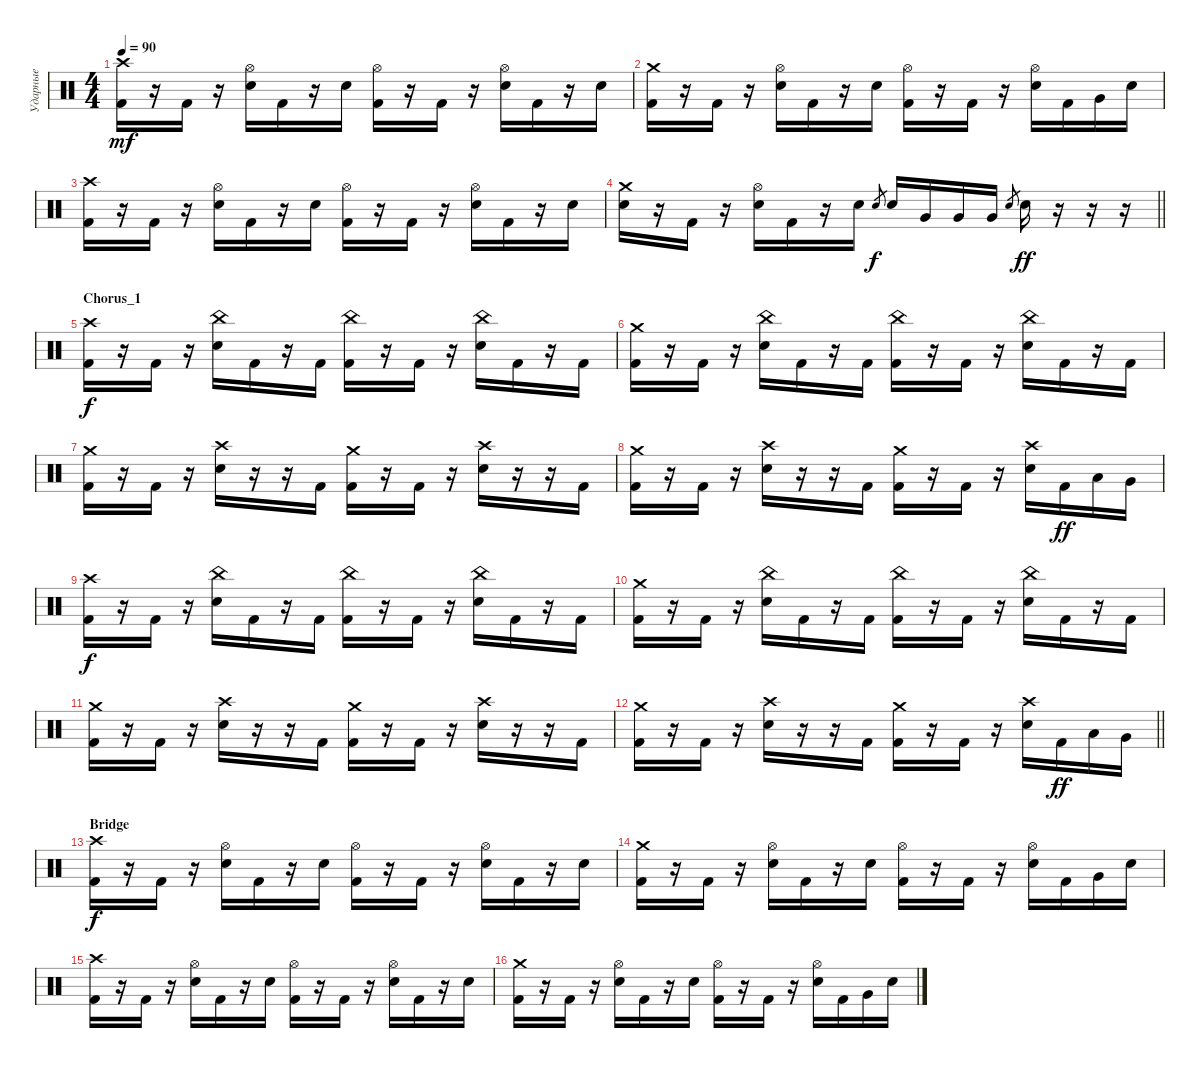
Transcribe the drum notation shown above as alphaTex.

\track ("Ударные" "Ударные") {instrument percussion}
\staff {score}
\articulation defaults
\ts (4 4)
\tempo 90
\clef neutral
\ks c
("Crash high (hit)" "Kick (hit) 2").16{dy mf} r.16 "Kick (hit) 2".16 r.16 ("Hi-Hat (open)" "Electric Snare (hit)").16 "Kick (hit) 2".16 r.16 "Electric Snare (hit)".16 ("Hi-Hat (open)" "Kick (hit) 2").16 r.16 "Kick (hit) 2".16 r.16 ("Hi-Hat (open)" "Electric Snare (hit)").16 "Kick (hit) 2".16 r.16 "Electric Snare (hit)".16 |
("Crash medium (hit)" "Kick (hit) 2").16 r.16 "Kick (hit) 2".16 r.16 ("Hi-Hat (open)" "Electric Snare (hit)").16 "Kick (hit) 2".16 r.16 "Electric Snare (hit)".16 ("Hi-Hat (open)" "Kick (hit) 2").16 r.16 "Kick (hit) 2".16 r.16 ("Hi-Hat (open)" "Electric Snare (hit)").16 "Kick (hit) 2".16 "Very Low Tom (hit)".16 "Electric Snare (hit)".16 |
("Crash high (hit)" "Kick (hit) 2").16 r.16 "Kick (hit) 2".16 r.16 ("Hi-Hat (open)" "Electric Snare (hit)").16 "Kick (hit) 2".16 r.16 "Electric Snare (hit)".16 ("Hi-Hat (open)" "Kick (hit) 2").16 r.16 "Kick (hit) 2".16 r.16 ("Hi-Hat (open)" "Electric Snare (hit)").16 "Kick (hit) 2".16 r.16 "Electric Snare (hit)".16 |
\barLineRight lightlight
("Crash medium (hit)" "Electric Snare (hit)").16 r.16 "Kick (hit) 2".16 r.16 ("Hi-Hat (open)" "Electric Snare (hit)").16 "Kick (hit) 2".16 r.16 "Electric Snare (hit)".16 "Electric Snare (hit)".8{gr dy f} "Electric Snare (hit)".16 "Very Low Tom (hit)".16 "Very Low Tom (hit)".16 "Very Low Tom (hit)".16 "Electric Snare (hit)".8{gr} "Electric Snare (hit)".16{dy ff} r.16 r.16 r.16 |
\section ("" "Chorus_1")
("Crash high (hit)" "Kick (hit) 2").16{dy f} r.16 "Kick (hit) 2".16 r.16 ("China (hit)" "Electric Snare (hit)").16 "Kick (hit) 2".16 r.16 "Kick (hit) 2".16 ("China (hit)" "Kick (hit) 2").16 r.16 "Kick (hit) 2".16 r.16 ("China (hit)" "Electric Snare (hit)").16 "Kick (hit) 2".16 r.16 "Kick (hit) 2".16 |
("Crash medium (hit)" "Kick (hit) 2").16 r.16 "Kick (hit) 2".16 r.16 ("China (hit)" "Electric Snare (hit)").16 "Kick (hit) 2".16 r.16 "Kick (hit) 2".16 ("China (hit)" "Kick (hit) 2").16 r.16 "Kick (hit) 2".16 r.16 ("China (hit)" "Electric Snare (hit)").16 "Kick (hit) 2".16 r.16 "Kick (hit) 2".16 |
("Crash medium (hit)" "Kick (hit) 2").16 r.16 "Kick (hit) 2".16 r.16 ("Crash high (hit)" "Electric Snare (hit)").16 r.16 r.16 "Kick (hit) 2".16 ("Crash medium (hit)" "Kick (hit) 2").16 r.16 "Kick (hit) 2".16 r.16 ("Crash high (hit)" "Electric Snare (hit)").16 r.16 r.16 "Kick (hit) 2".16 |
("Crash medium (hit)" "Kick (hit) 2").16 r.16 "Kick (hit) 2".16 r.16 ("Crash high (hit)" "Electric Snare (hit)").16 r.16 r.16 "Kick (hit) 2".16 ("Crash medium (hit)" "Kick (hit) 2").16 r.16 "Kick (hit) 2".16 r.16 ("Crash high (hit)" "Electric Snare (hit)").16 "Kick (hit) 2".16{dy ff} "Low Tom (hit)".16 "Very Low Tom (hit)".16 |
("Crash high (hit)" "Kick (hit) 2").16{dy f} r.16 "Kick (hit) 2".16 r.16 ("China (hit)" "Electric Snare (hit)").16 "Kick (hit) 2".16 r.16 "Kick (hit) 2".16 ("China (hit)" "Kick (hit) 2").16 r.16 "Kick (hit) 2".16 r.16 ("China (hit)" "Electric Snare (hit)").16 "Kick (hit) 2".16 r.16 "Kick (hit) 2".16 |
("Crash medium (hit)" "Kick (hit) 2").16 r.16 "Kick (hit) 2".16 r.16 ("China (hit)" "Electric Snare (hit)").16 "Kick (hit) 2".16 r.16 "Kick (hit) 2".16 ("China (hit)" "Kick (hit) 2").16 r.16 "Kick (hit) 2".16 r.16 ("China (hit)" "Electric Snare (hit)").16 "Kick (hit) 2".16 r.16 "Kick (hit) 2".16 |
("Crash medium (hit)" "Kick (hit) 2").16 r.16 "Kick (hit) 2".16 r.16 ("Crash high (hit)" "Electric Snare (hit)").16 r.16 r.16 "Kick (hit) 2".16 ("Crash medium (hit)" "Kick (hit) 2").16 r.16 "Kick (hit) 2".16 r.16 ("Crash high (hit)" "Electric Snare (hit)").16 r.16 r.16 "Kick (hit) 2".16 |
\barLineRight lightlight
("Crash medium (hit)" "Kick (hit) 2").16 r.16 "Kick (hit) 2".16 r.16 ("Crash high (hit)" "Electric Snare (hit)").16 r.16 r.16 "Kick (hit) 2".16 ("Crash medium (hit)" "Kick (hit) 2").16 r.16 "Kick (hit) 2".16 r.16 ("Crash high (hit)" "Electric Snare (hit)").16 "Kick (hit) 2".16{dy ff} "Low Tom (hit)".16 "Very Low Tom (hit)".16 |
\section ("" "Bridge")
("Crash high (hit)" "Kick (hit) 2").16{dy f} r.16 "Kick (hit) 2".16 r.16 ("Hi-Hat (open)" "Electric Snare (hit)").16 "Kick (hit) 2".16 r.16 "Electric Snare (hit)".16 ("Hi-Hat (open)" "Kick (hit) 2").16 r.16 "Kick (hit) 2".16 r.16 ("Hi-Hat (open)" "Electric Snare (hit)").16 "Kick (hit) 2".16 r.16 "Electric Snare (hit)".16 |
("Crash medium (hit)" "Kick (hit) 2").16 r.16 "Kick (hit) 2".16 r.16 ("Hi-Hat (open)" "Electric Snare (hit)").16 "Kick (hit) 2".16 r.16 "Electric Snare (hit)".16 ("Hi-Hat (open)" "Kick (hit) 2").16 r.16 "Kick (hit) 2".16 r.16 ("Hi-Hat (open)" "Electric Snare (hit)").16 "Kick (hit) 2".16 "Very Low Tom (hit)".16 "Electric Snare (hit)".16 |
("Crash high (hit)" "Kick (hit) 2").16 r.16 "Kick (hit) 2".16 r.16 ("Hi-Hat (open)" "Electric Snare (hit)").16 "Kick (hit) 2".16 r.16 "Electric Snare (hit)".16 ("Hi-Hat (open)" "Kick (hit) 2").16 r.16 "Kick (hit) 2".16 r.16 ("Hi-Hat (open)" "Electric Snare (hit)").16 "Kick (hit) 2".16 r.16 "Electric Snare (hit)".16 |
("Crash medium (hit)" "Kick (hit) 2").16 r.16 "Kick (hit) 2".16 r.16 ("Hi-Hat (open)" "Electric Snare (hit)").16 "Kick (hit) 2".16 r.16 "Electric Snare (hit)".16 ("Hi-Hat (open)" "Kick (hit) 2").16 r.16 "Kick (hit) 2".16 r.16 ("Hi-Hat (open)" "Electric Snare (hit)").16 "Kick (hit) 2".16 "Very Low Tom (hit)".16 "Electric Snare (hit)".16
